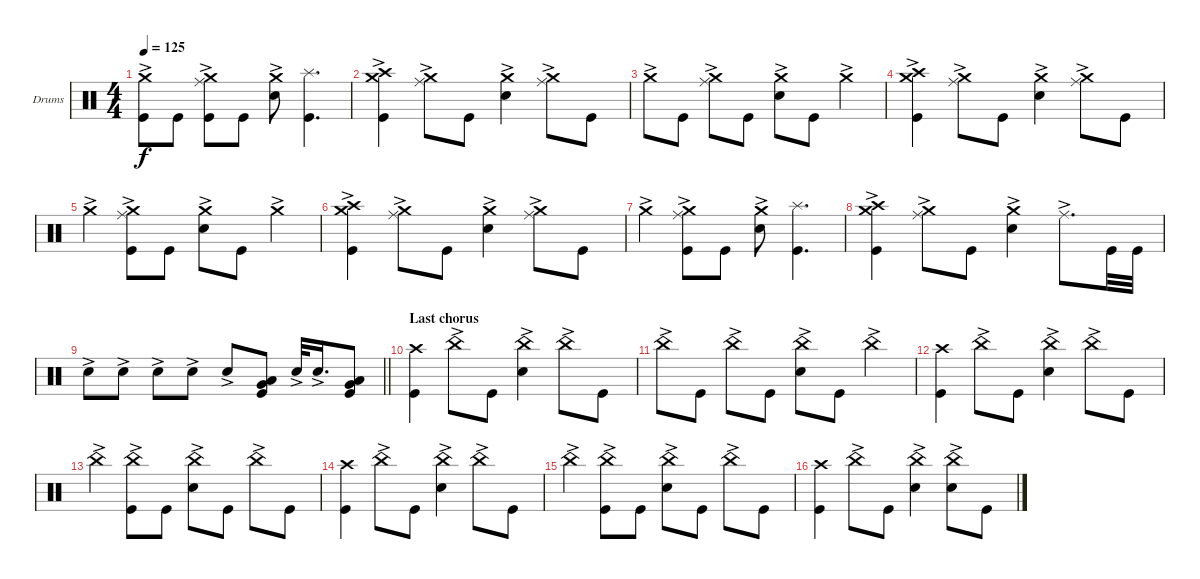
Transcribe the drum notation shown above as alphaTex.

\bracketExtendMode groupsimilarinstruments
\firstSystemTrackNameOrientation horizontal
\otherSystemsTrackNameOrientation horizontal
\track ("Drumkit" "Drums") {instrument percussion}
\staff {score}
\articulation defaults
\ts (4 4)
\tempo 125
\clef neutral
\ks c
("Crash medium (hit)"{ac} "Kick (hit)").8{dy f} "Kick (hit)".8 ("Crash medium (hit)"{ac} "Ride (middle)"{ac} "Kick (hit)").8 "Kick (hit)".8 ("Crash medium (hit)"{ac} "Snare (hit) 2"{ac}).8 ("Splash (hit)" "Kick (hit)").4{d} |
("Crash medium (hit)"{ac} "Crash high (hit)" "Kick (hit)").4 ("Crash medium (hit)"{ac} "Ride (middle)"{ac}).8 "Kick (hit)".8 ("Crash medium (hit)"{ac} "Snare (hit) 2"{ac}).4 ("Crash medium (hit)"{ac} "Ride (middle)"{ac}).8 "Kick (hit)".8 |
"Crash medium (hit)"{ac}.8 "Kick (hit)".8 ("Crash medium (hit)"{ac} "Ride (middle)"{ac}).8 "Kick (hit)".8 ("Crash medium (hit)"{ac} "Snare (hit) 2"{ac}).8 "Kick (hit)".8 "Crash medium (hit)"{ac}.4 |
("Crash medium (hit)"{ac} "Crash high (hit)" "Kick (hit)").4 ("Crash medium (hit)"{ac} "Ride (middle)"{ac}).8 "Kick (hit)".8 ("Crash medium (hit)"{ac} "Snare (hit) 2"{ac}).4 ("Crash medium (hit)"{ac} "Ride (middle)"{ac}).8 "Kick (hit)".8 |
"Crash medium (hit)"{ac}.4 ("Crash medium (hit)"{ac} "Ride (middle)"{ac} "Kick (hit)").8 "Kick (hit)".8 ("Crash medium (hit)"{ac} "Snare (hit) 2"{ac}).8 "Kick (hit)".8 "Crash medium (hit)"{ac}.4 |
("Crash medium (hit)"{ac} "Crash high (hit)" "Kick (hit)").4 ("Crash medium (hit)"{ac} "Ride (middle)"{ac}).8 "Kick (hit)".8 ("Crash medium (hit)"{ac} "Snare (hit) 2"{ac}).4 ("Crash medium (hit)"{ac} "Ride (middle)"{ac}).8 "Kick (hit)".8 |
"Crash medium (hit)"{ac}.4 ("Crash medium (hit)"{ac} "Ride (middle)"{ac} "Kick (hit)").8 "Kick (hit)".8 ("Crash medium (hit)"{ac} "Snare (hit) 2"{ac}).8 ("Splash (hit)" "Kick (hit)").4{d} |
("Crash medium (hit)"{ac} "Crash high (hit)" "Kick (hit)").4 ("Crash medium (hit)"{ac} "Ride (middle)"{ac}).8 "Kick (hit)".8 ("Crash medium (hit)"{ac} "Snare (hit) 2"{ac}).4 "Ride (middle)"{ac}.8{d} "Kick (hit)".32 "Kick (hit)".32 |
\barLineRight lightlight "Snare (hit) 2"{ac}.8 "Snare (hit) 2"{ac}.8 "Snare (hit) 2"{ac}.8 "Snare (hit) 2"{ac}.8 "Snare (hit) 2"{ac}.8
("Low Tom (hit)" "Very Low Tom (hit)" "Kick (hit)").8 "Snare (hit) 2"{ac}.32 "Snare (hit) 2"{ac}.16{d} ("Low Tom (hit)" "Very Low Tom (hit)" "Kick (hit)").8 |
\section ("" "Last chorus")
("Crash high (hit)" "Kick (hit)").4 "China (hit)"{ac}.8 "Kick (hit)".8 ("China (hit)"{ac} "Snare (hit) 2"{ac}).4 "China (hit)"{ac}.8 "Kick (hit)".8 |
"China (hit)"{ac}.8 "Kick (hit)".8 "China (hit)"{ac}.8 "Kick (hit)".8 ("China (hit)"{ac} "Snare (hit) 2"{ac}).8 "Kick (hit)".8 "China (hit)"{ac}.4 |
("Crash high (hit)" "Kick (hit)").4 "China (hit)"{ac}.8 "Kick (hit)".8 ("China (hit)"{ac} "Snare (hit) 2"{ac}).4 "China (hit)"{ac}.8 "Kick (hit)".8 |
"China (hit)"{ac}.4 ("China (hit)"{ac} "Kick (hit)").8 "Kick (hit)".8 ("China (hit)"{ac} "Snare (hit) 2"{ac}).8 "Kick (hit)".8 "China (hit)"{ac}.8 "Kick (hit)".8 |
("Crash high (hit)" "Kick (hit)").4 "China (hit)"{ac}.8 "Kick (hit)".8 ("China (hit)"{ac} "Snare (hit) 2"{ac}).4 "China (hit)"{ac}.8 "Kick (hit)".8 |
"China (hit)"{ac}.4 ("China (hit)"{ac} "Kick (hit)").8 "Kick (hit)".8 ("China (hit)"{ac} "Snare (hit) 2"{ac}).8 "Kick (hit)".8 "China (hit)"{ac}.8 "Kick (hit)".8 |
("Crash high (hit)" "Kick (hit)").4 "China (hit)"{ac}.8 "Kick (hit)".8 ("China (hit)"{ac} "Snare (hit) 2"{ac}).4 ("China (hit)"{ac} "Snare (hit) 2"{ac}).8 "Kick (hit)".8
